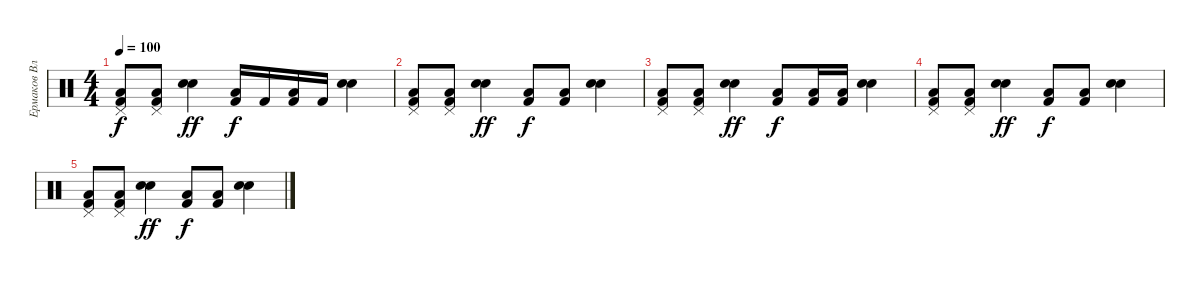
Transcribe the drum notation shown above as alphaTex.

\track ("Ермаков Владимир" "Ермаков Вл") {instrument percussion}
\staff {score}
\articulation defaults
\ts (4 4)
\tempo 100
\clef neutral
\ks c
("Kick (hit) 2" "Pedal Hi-Hat (hit)" "Low Floor Tom (hit)").8{dy f} ("Kick (hit) 2" "Pedal Hi-Hat (hit)" "Low Floor Tom (hit)").8 ("Hand Clap (hit)" "Electric Snare (hit)").4{dy ff} ("Kick (hit) 2" "Low Floor Tom (hit)").16{dy f} "Kick (hit) 2".16 ("Kick (hit) 2" "Low Floor Tom (hit)").16 "Kick (hit) 2".16 ("Hand Clap (hit)" "Electric Snare (hit)").4 |
("Kick (hit) 2" "Pedal Hi-Hat (hit)" "Low Floor Tom (hit)").8{volume 8} ("Kick (hit) 2" "Pedal Hi-Hat (hit)" "Low Floor Tom (hit)").8 ("Hand Clap (hit)" "Electric Snare (hit)").4{dy ff} ("Kick (hit) 2" "Low Floor Tom (hit)").8{dy f} ("Kick (hit) 2" "Low Floor Tom (hit)").8 ("Hand Clap (hit)" "Electric Snare (hit)").4 |
("Kick (hit) 2" "Pedal Hi-Hat (hit)" "Low Floor Tom (hit)").8 ("Kick (hit) 2" "Pedal Hi-Hat (hit)" "Low Floor Tom (hit)").8 ("Hand Clap (hit)" "Electric Snare (hit)").4{dy ff} ("Kick (hit) 2" "Low Floor Tom (hit)").8{dy f} ("Kick (hit) 2" "Low Floor Tom (hit)").16 ("Kick (hit) 2" "Low Floor Tom (hit)").16 ("Hand Clap (hit)" "Electric Snare (hit)").4 |
("Kick (hit) 2" "Pedal Hi-Hat (hit)" "Low Floor Tom (hit)").8{volume 0} ("Kick (hit) 2" "Pedal Hi-Hat (hit)" "Low Floor Tom (hit)").8 ("Hand Clap (hit)" "Electric Snare (hit)").4{dy ff} ("Kick (hit) 2" "Low Floor Tom (hit)").8{dy f} ("Kick (hit) 2" "Low Floor Tom (hit)").8 ("Hand Clap (hit)" "Electric Snare (hit)").4 |
("Kick (hit) 2" "Pedal Hi-Hat (hit)" "Low Floor Tom (hit)").8 ("Kick (hit) 2" "Pedal Hi-Hat (hit)" "Low Floor Tom (hit)").8 ("Hand Clap (hit)" "Electric Snare (hit)").4{dy ff} ("Kick (hit) 2" "Low Floor Tom (hit)").8{dy f} ("Kick (hit) 2" "Low Floor Tom (hit)").8 ("Hand Clap (hit)" "Electric Snare (hit)").4
